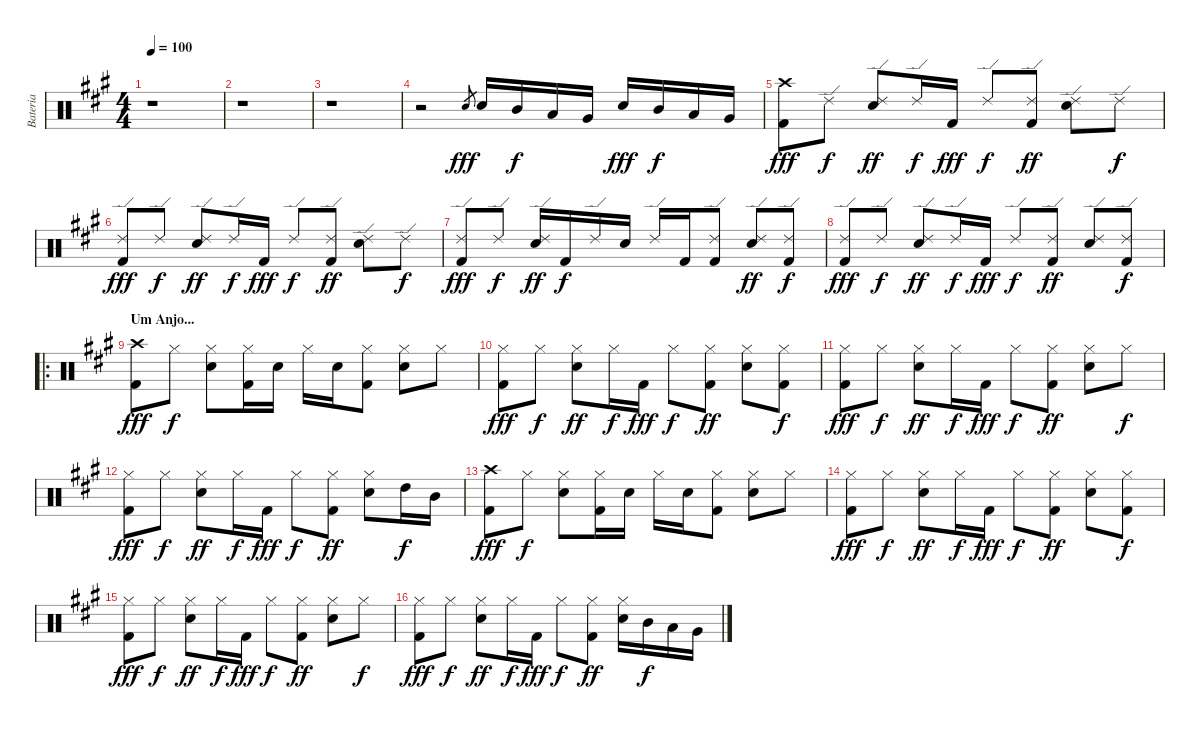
\track ("Bateria" "Bateria") {instrument percussion}
\staff {score}
\articulation defaults
\ts (4 4)
\tempo 100
\clef neutral
\ks f#minor
r.1{dy fff} |
r.1 |
r.1 |
r.2 "Electric Snare (hit)".8{gr} "Electric Snare (hit)".16 "Mid Tom (hit)".16{dy f} "Low Tom (hit)".16 "Very Low Tom (hit)".16 "Electric Snare (hit)".16{dy fff} "Mid Tom (hit)".16{dy f} "Low Tom (hit)".16 "Very Low Tom (hit)".16 |
("Crash high (hit)" "Kick (hit) 2").8{dy fff} "Ride (edge) 2".8{dy f} ("Ride (edge) 2" "Electric Snare (hit)").8{dy ff} "Ride (edge) 2".16{dy f} "Kick (hit) 2".16{dy fff} "Ride (edge) 2".8{dy f} ("Ride (edge) 2" "Kick (hit) 2").8{dy ff} ("Ride (edge) 2" "Electric Snare (hit)").8 "Ride (edge) 2".8{dy f} |
("Ride (edge) 2" "Kick (hit) 2").8{dy fff} "Ride (edge) 2".8{dy f} ("Ride (edge) 2" "Electric Snare (hit)").8{dy ff} "Ride (edge) 2".16{dy f} "Kick (hit) 2".16{dy fff} "Ride (edge) 2".8{dy f} ("Ride (edge) 2" "Kick (hit) 2").8{dy ff} ("Ride (edge) 2" "Electric Snare (hit)").8 "Ride (edge) 2".8{dy f} |
("Ride (edge) 2" "Kick (hit) 2").8{dy fff} "Ride (edge) 2".8{dy f} ("Ride (edge) 2" "Electric Snare (hit)").16{dy ff} "Kick (hit) 2".16{dy f} "Ride (edge) 2".16 "Electric Snare (hit)".16 "Ride (edge) 2".16 "Kick (hit) 2".16 ("Ride (edge) 2" "Kick (hit) 2").8 ("Ride (edge) 2" "Electric Snare (hit)").8{dy ff} ("Ride (edge) 2" "Kick (hit) 2").8{dy f} |
("Ride (edge) 2" "Kick (hit) 2").8{dy fff} "Ride (edge) 2".8{dy f} ("Ride (edge) 2" "Electric Snare (hit)").8{dy ff} "Ride (edge) 2".16{dy f} "Kick (hit) 2".16{dy fff} "Ride (edge) 2".8{dy f} ("Ride (edge) 2" "Kick (hit) 2").8{dy ff} ("Ride (edge) 2" "Electric Snare (hit)").8 ("Ride (edge) 2" "Kick (hit) 2").8{dy f} |
\ro
\section ("" "Um Anjo...")
("Crash high (hit)" "Kick (hit) 2").8{dy fff} "Hi-Hat (closed)".8{dy f} ("Hi-Hat (closed)" "Electric Snare (hit)").8 ("Hi-Hat (closed)" "Kick (hit) 2").16 "Electric Snare (hit)".16 "Hi-Hat (closed)".16 "Electric Snare (hit)".16 ("Hi-Hat (closed)" "Kick (hit) 2").8 ("Hi-Hat (closed)" "Electric Snare (hit)").8 "Hi-Hat (closed)".8 |
("Hi-Hat (closed)" "Kick (hit) 2").8{dy fff} "Hi-Hat (closed)".8{dy f} ("Hi-Hat (closed)" "Electric Snare (hit)").8{dy ff} "Hi-Hat (closed)".16{dy f} "Kick (hit) 2".16{dy fff} "Hi-Hat (closed)".8{dy f} ("Hi-Hat (closed)" "Kick (hit) 2").8{dy ff} ("Hi-Hat (closed)" "Electric Snare (hit)").8 ("Hi-Hat (closed)" "Kick (hit) 2").8{dy f} |
("Hi-Hat (closed)" "Kick (hit) 2").8{dy fff} "Hi-Hat (closed)".8{dy f} ("Hi-Hat (closed)" "Electric Snare (hit)").8{dy ff} "Hi-Hat (closed)".16{dy f} "Kick (hit) 2".16{dy fff} "Hi-Hat (closed)".8{dy f} ("Hi-Hat (closed)" "Kick (hit) 2").8{dy ff} ("Hi-Hat (closed)" "Electric Snare (hit)").8 "Hi-Hat (closed)".8{dy f} |
("Hi-Hat (closed)" "Kick (hit) 2").8{dy fff} "Hi-Hat (closed)".8{dy f} ("Hi-Hat (closed)" "Electric Snare (hit)").8{dy ff} "Hi-Hat (closed)".16{dy f} "Kick (hit) 2".16{dy fff} "Hi-Hat (closed)".8{dy f} ("Hi-Hat (closed)" "Kick (hit) 2").8{dy ff} ("Hi-Hat (closed)" "Electric Snare (hit)").8 "High Tom (hit)".16{dy f} "Mid Tom (hit)".16 |
("Crash high (hit)" "Kick (hit) 2").8{dy fff} "Hi-Hat (closed)".8{dy f} ("Hi-Hat (closed)" "Electric Snare (hit)").8 ("Hi-Hat (closed)" "Kick (hit) 2").16 "Electric Snare (hit)".16 "Hi-Hat (closed)".16 "Electric Snare (hit)".16 ("Hi-Hat (closed)" "Kick (hit) 2").8 ("Hi-Hat (closed)" "Electric Snare (hit)").8 "Hi-Hat (closed)".8 |
("Hi-Hat (closed)" "Kick (hit) 2").8{dy fff} "Hi-Hat (closed)".8{dy f} ("Hi-Hat (closed)" "Electric Snare (hit)").8{dy ff} "Hi-Hat (closed)".16{dy f} "Kick (hit) 2".16{dy fff} "Hi-Hat (closed)".8{dy f} ("Hi-Hat (closed)" "Kick (hit) 2").8{dy ff} ("Hi-Hat (closed)" "Electric Snare (hit)").8 ("Hi-Hat (closed)" "Kick (hit) 2").8{dy f} |
("Hi-Hat (closed)" "Kick (hit) 2").8{dy fff} "Hi-Hat (closed)".8{dy f} ("Hi-Hat (closed)" "Electric Snare (hit)").8{dy ff} "Hi-Hat (closed)".16{dy f} "Kick (hit) 2".16{dy fff} "Hi-Hat (closed)".8{dy f} ("Hi-Hat (closed)" "Kick (hit) 2").8{dy ff} ("Hi-Hat (closed)" "Electric Snare (hit)").8 "Hi-Hat (closed)".8{dy f} |
("Hi-Hat (closed)" "Kick (hit) 2").8{dy fff} "Hi-Hat (closed)".8{dy f} ("Hi-Hat (closed)" "Electric Snare (hit)").8{dy ff} "Hi-Hat (closed)".16{dy f} "Kick (hit) 2".16{dy fff} "Hi-Hat (closed)".8{dy f} ("Hi-Hat (closed)" "Kick (hit) 2").8{dy ff} ("Hi-Hat (closed)" "Electric Snare (hit)").16 "Mid Tom (hit)".16{dy f} "Low Tom (hit)".16 "Very Low Tom (hit)".16
